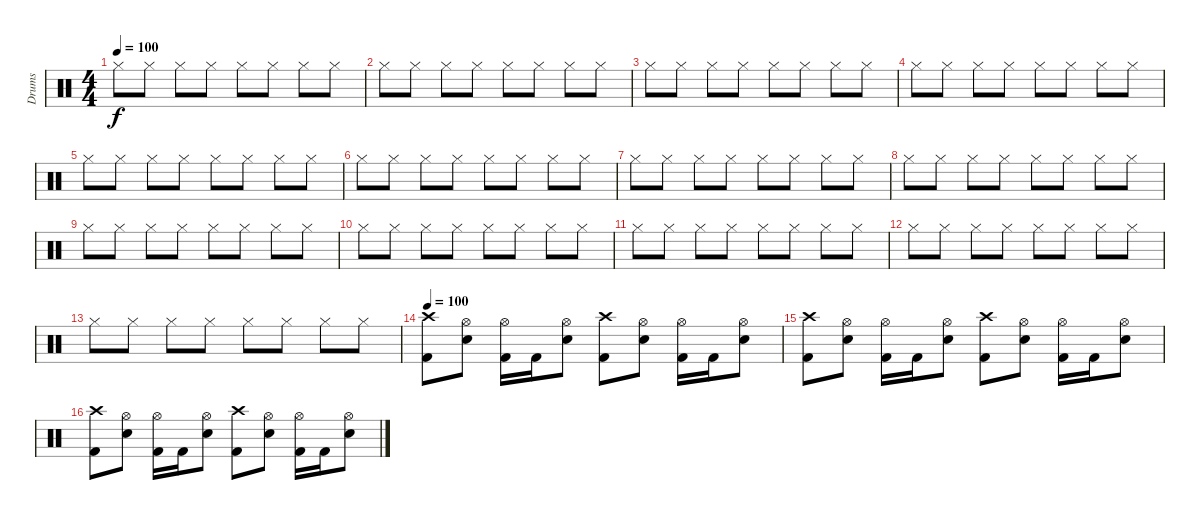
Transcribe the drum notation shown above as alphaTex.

\track ("Drums" "Drums") {instrument percussion}
\staff {score}
\articulation defaults
\ts (4 4)
\tempo 100
\clef neutral
\ks c "Hi-Hat (closed)".8{dy f} "Hi-Hat (closed)".8 "Hi-Hat (closed)".8 "Hi-Hat (closed)".8 "Hi-Hat (closed)".8 "Hi-Hat (closed)".8 "Hi-Hat (closed)".8 "Hi-Hat (closed)".8
|
"Hi-Hat (closed)".8 "Hi-Hat (closed)".8 "Hi-Hat (closed)".8 "Hi-Hat (closed)".8 "Hi-Hat (closed)".8 "Hi-Hat (closed)".8 "Hi-Hat (closed)".8 "Hi-Hat (closed)".8 |
"Hi-Hat (closed)".8 "Hi-Hat (closed)".8 "Hi-Hat (closed)".8 "Hi-Hat (closed)".8 "Hi-Hat (closed)".8 "Hi-Hat (closed)".8 "Hi-Hat (closed)".8 "Hi-Hat (closed)".8 |
"Hi-Hat (closed)".8 "Hi-Hat (closed)".8 "Hi-Hat (closed)".8 "Hi-Hat (closed)".8 "Hi-Hat (closed)".8 "Hi-Hat (closed)".8 "Hi-Hat (closed)".8 "Hi-Hat (closed)".8 |
"Hi-Hat (closed)".8 "Hi-Hat (closed)".8 "Hi-Hat (closed)".8 "Hi-Hat (closed)".8 "Hi-Hat (closed)".8 "Hi-Hat (closed)".8 "Hi-Hat (closed)".8 "Hi-Hat (closed)".8 |
"Hi-Hat (closed)".8 "Hi-Hat (closed)".8 "Hi-Hat (closed)".8 "Hi-Hat (closed)".8 "Hi-Hat (closed)".8 "Hi-Hat (closed)".8 "Hi-Hat (closed)".8 "Hi-Hat (closed)".8 |
"Hi-Hat (closed)".8 "Hi-Hat (closed)".8 "Hi-Hat (closed)".8 "Hi-Hat (closed)".8 "Hi-Hat (closed)".8 "Hi-Hat (closed)".8 "Hi-Hat (closed)".8 "Hi-Hat (closed)".8 |
"Hi-Hat (closed)".8 "Hi-Hat (closed)".8 "Hi-Hat (closed)".8 "Hi-Hat (closed)".8 "Hi-Hat (closed)".8 "Hi-Hat (closed)".8 "Hi-Hat (closed)".8 "Hi-Hat (closed)".8 |
"Hi-Hat (closed)".8 "Hi-Hat (closed)".8 "Hi-Hat (closed)".8 "Hi-Hat (closed)".8 "Hi-Hat (closed)".8 "Hi-Hat (closed)".8 "Hi-Hat (closed)".8 "Hi-Hat (closed)".8 |
"Hi-Hat (closed)".8 "Hi-Hat (closed)".8 "Hi-Hat (closed)".8 "Hi-Hat (closed)".8 "Hi-Hat (closed)".8 "Hi-Hat (closed)".8 "Hi-Hat (closed)".8 "Hi-Hat (closed)".8 |
"Hi-Hat (closed)".8 "Hi-Hat (closed)".8 "Hi-Hat (closed)".8 "Hi-Hat (closed)".8 "Hi-Hat (closed)".8 "Hi-Hat (closed)".8 "Hi-Hat (closed)".8 "Hi-Hat (closed)".8 |
"Hi-Hat (closed)".8 "Hi-Hat (closed)".8 "Hi-Hat (closed)".8 "Hi-Hat (closed)".8 "Hi-Hat (closed)".8 "Hi-Hat (closed)".8 "Hi-Hat (closed)".8 "Hi-Hat (closed)".8 |
"Hi-Hat (closed)".8 "Hi-Hat (closed)".8 "Hi-Hat (closed)".8 "Hi-Hat (closed)".8 "Hi-Hat (closed)".8 "Hi-Hat (closed)".8 "Hi-Hat (closed)".8 "Hi-Hat (closed)".8 |
\tempo 100
("Crash high (hit)" "Kick (hit) 2").8 ("Hi-Hat (open)" "Electric Snare (hit)").8 ("Hi-Hat (open)" "Kick (hit) 2").16 "Kick (hit) 2".16 ("Hi-Hat (open)" "Electric Snare (hit)").8 ("Crash high (hit)" "Kick (hit) 2").8 ("Hi-Hat (open)" "Electric Snare (hit)").8 ("Hi-Hat (open)" "Kick (hit) 2").16 "Kick (hit) 2".16 ("Hi-Hat (open)" "Electric Snare (hit)").8 |
("Crash high (hit)" "Kick (hit) 2").8 ("Hi-Hat (open)" "Electric Snare (hit)").8 ("Hi-Hat (open)" "Kick (hit) 2").16 "Kick (hit) 2".16 ("Hi-Hat (open)" "Electric Snare (hit)").8 ("Crash high (hit)" "Kick (hit) 2").8 ("Hi-Hat (open)" "Electric Snare (hit)").8 ("Hi-Hat (open)" "Kick (hit) 2").16 "Kick (hit) 2".16 ("Hi-Hat (open)" "Electric Snare (hit)").8 |
("Crash high (hit)" "Kick (hit) 2").8 ("Hi-Hat (open)" "Electric Snare (hit)").8 ("Hi-Hat (open)" "Kick (hit) 2").16 "Kick (hit) 2".16 ("Hi-Hat (open)" "Electric Snare (hit)").8 ("Crash high (hit)" "Kick (hit) 2").8 ("Hi-Hat (open)" "Electric Snare (hit)").8 ("Hi-Hat (open)" "Kick (hit) 2").16 "Kick (hit) 2".16 ("Hi-Hat (open)" "Electric Snare (hit)").8
